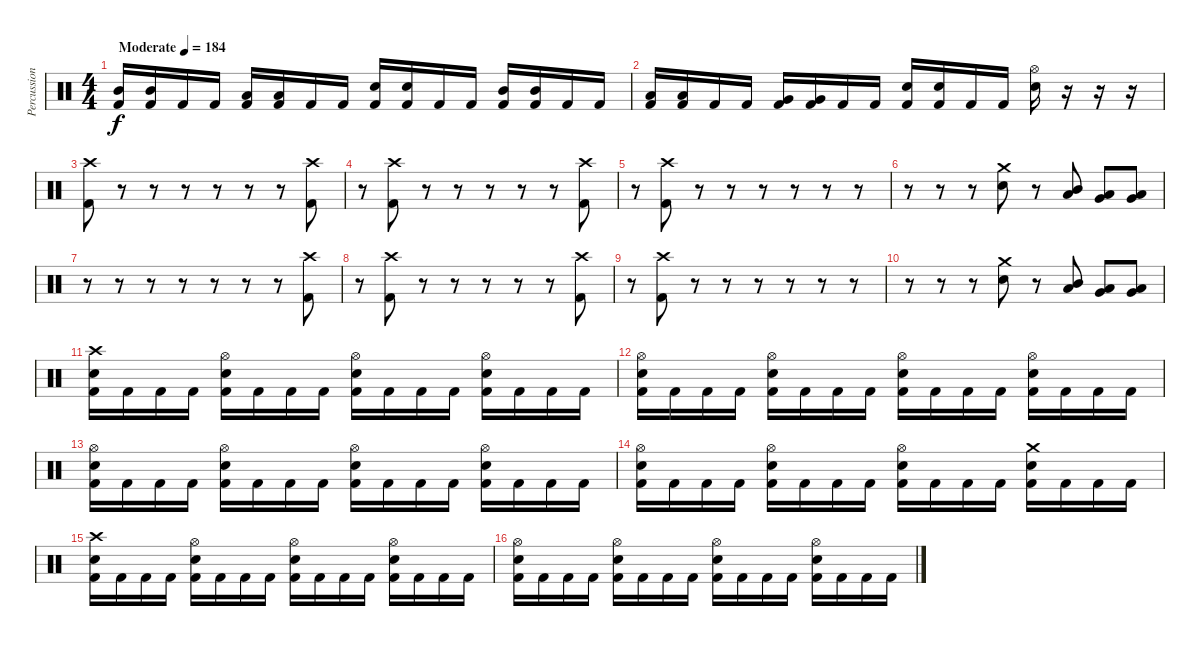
\track ("Percussion" "Percussion") {instrument percussion}
\staff {score}
\articulation defaults
\ts (4 4)
\tempo (184 "Moderate")
\clef neutral
\ks c
("Mid Tom (hit)" "Kick (hit) 2").16{dy f} ("Mid Tom (hit)" "Kick (hit) 2").16 "Kick (hit) 2".16 "Kick (hit) 2".16 ("Low Tom (hit)" "Kick (hit) 2").16 ("Low Tom (hit)" "Kick (hit) 2").16 "Kick (hit) 2".16 "Kick (hit) 2".16 ("Snare (hit) 2" "Kick (hit) 2").16 ("Snare (hit) 2" "Kick (hit) 2").16 "Kick (hit) 2".16 "Kick (hit) 2".16 ("Mid Tom (hit)" "Kick (hit) 2").16 ("Mid Tom (hit)" "Kick (hit) 2").16 "Kick (hit) 2".16 "Kick (hit) 2".16 |
("Low Tom (hit)" "Kick (hit) 2").16 ("Low Tom (hit)" "Kick (hit) 2").16 "Kick (hit) 2".16 "Kick (hit) 2".16 ("Very Low Tom (hit)" "Kick (hit) 2").16 ("Very Low Tom (hit)" "Kick (hit) 2").16 "Kick (hit) 2".16 "Kick (hit) 2".16 ("Snare (hit) 2" "Kick (hit) 2").16 ("Snare (hit) 2" "Kick (hit) 2").16 "Kick (hit) 2".16 "Kick (hit) 2".16 ("Hi-Hat (open)" "Snare (hit) 2").16 r.16 r.16 r.16 |
("Crash high (hit)" "Kick (hit) 2").8 r.8{volume 0} r.8 r.8 r.8 r.8 r.8 ("Crash high (hit)" "Kick (hit) 2").8{volume 16} |
r.8 ("Crash high (hit)" "Kick (hit) 2").8 r.8{volume 0} r.8 r.8 r.8 r.8 ("Crash high (hit)" "Kick (hit) 2").8{volume 16} |
r.8 ("Crash high (hit)" "Kick (hit) 2").8 r.8{volume 0} r.8 r.8 r.8 r.8 r.8 |
r.8 r.8 r.8 ("Crash medium (hit)" "Snare (hit) 2").8{volume 16} r.8 ("Mid Tom (hit)" "Low Tom (hit)").8 ("Low Floor Tom (hit)" "Very Low Tom (hit)").8 ("Low Floor Tom (hit)" "Very Low Tom (hit)").8 |
r.8 r.8 r.8 r.8 r.8 r.8 r.8 ("Crash high (hit)" "Kick (hit) 2").8{volume 16} |
r.8 ("Crash high (hit)" "Kick (hit) 2").8 r.8{volume 0} r.8 r.8 r.8 r.8 ("Crash high (hit)" "Kick (hit) 2").8{volume 16} |
r.8 ("Crash high (hit)" "Kick (hit) 2").8 r.8{volume 0} r.8 r.8 r.8 r.8 r.8 |
r.8 r.8 r.8 ("Crash medium (hit)" "Snare (hit) 2").8{volume 16} r.8 ("Mid Tom (hit)" "Low Tom (hit)").8 ("Low Floor Tom (hit)" "Very Low Tom (hit)").8 ("Low Floor Tom (hit)" "Very Low Tom (hit)").8 |
("Crash high (hit)" "Snare (hit) 2" "Kick (hit) 2").16 "Kick (hit) 2".16 "Kick (hit) 2".16 "Kick (hit) 2".16 ("Hi-Hat (open)" "Snare (hit) 2" "Kick (hit) 2").16 "Kick (hit) 2".16 "Kick (hit) 2".16 "Kick (hit) 2".16 ("Hi-Hat (open)" "Snare (hit) 2" "Kick (hit) 2").16 "Kick (hit) 2".16 "Kick (hit) 2".16 "Kick (hit) 2".16 ("Hi-Hat (open)" "Snare (hit) 2" "Kick (hit) 2").16 "Kick (hit) 2".16 "Kick (hit) 2".16 "Kick (hit) 2".16 |
("Hi-Hat (open)" "Snare (hit) 2" "Kick (hit) 2").16 "Kick (hit) 2".16 "Kick (hit) 2".16 "Kick (hit) 2".16 ("Hi-Hat (open)" "Snare (hit) 2" "Kick (hit) 2").16 "Kick (hit) 2".16 "Kick (hit) 2".16 "Kick (hit) 2".16 ("Hi-Hat (open)" "Snare (hit) 2" "Kick (hit) 2").16 "Kick (hit) 2".16 "Kick (hit) 2".16 "Kick (hit) 2".16 ("Hi-Hat (open)" "Snare (hit) 2" "Kick (hit) 2").16 "Kick (hit) 2".16 "Kick (hit) 2".16 "Kick (hit) 2".16 |
("Hi-Hat (open)" "Snare (hit) 2" "Kick (hit) 2").16 "Kick (hit) 2".16 "Kick (hit) 2".16 "Kick (hit) 2".16 ("Hi-Hat (open)" "Snare (hit) 2" "Kick (hit) 2").16 "Kick (hit) 2".16 "Kick (hit) 2".16 "Kick (hit) 2".16 ("Hi-Hat (open)" "Snare (hit) 2" "Kick (hit) 2").16 "Kick (hit) 2".16 "Kick (hit) 2".16 "Kick (hit) 2".16 ("Hi-Hat (open)" "Snare (hit) 2" "Kick (hit) 2").16 "Kick (hit) 2".16 "Kick (hit) 2".16 "Kick (hit) 2".16 |
("Hi-Hat (open)" "Snare (hit) 2" "Kick (hit) 2").16 "Kick (hit) 2".16 "Kick (hit) 2".16 "Kick (hit) 2".16 ("Hi-Hat (open)" "Snare (hit) 2" "Kick (hit) 2").16 "Kick (hit) 2".16 "Kick (hit) 2".16 "Kick (hit) 2".16 ("Hi-Hat (open)" "Snare (hit) 2" "Kick (hit) 2").16 "Kick (hit) 2".16 "Kick (hit) 2".16 "Kick (hit) 2".16 ("Crash medium (hit)" "Snare (hit) 2" "Kick (hit) 2").16 "Kick (hit) 2".16 "Kick (hit) 2".16 "Kick (hit) 2".16 |
("Crash high (hit)" "Snare (hit) 2" "Kick (hit) 2").16 "Kick (hit) 2".16 "Kick (hit) 2".16 "Kick (hit) 2".16 ("Hi-Hat (open)" "Snare (hit) 2" "Kick (hit) 2").16 "Kick (hit) 2".16 "Kick (hit) 2".16 "Kick (hit) 2".16 ("Hi-Hat (open)" "Snare (hit) 2" "Kick (hit) 2").16 "Kick (hit) 2".16 "Kick (hit) 2".16 "Kick (hit) 2".16 ("Hi-Hat (open)" "Snare (hit) 2" "Kick (hit) 2").16 "Kick (hit) 2".16 "Kick (hit) 2".16 "Kick (hit) 2".16 |
("Hi-Hat (open)" "Snare (hit) 2" "Kick (hit) 2").16 "Kick (hit) 2".16 "Kick (hit) 2".16 "Kick (hit) 2".16 ("Hi-Hat (open)" "Snare (hit) 2" "Kick (hit) 2").16 "Kick (hit) 2".16 "Kick (hit) 2".16 "Kick (hit) 2".16 ("Hi-Hat (open)" "Snare (hit) 2" "Kick (hit) 2").16 "Kick (hit) 2".16 "Kick (hit) 2".16 "Kick (hit) 2".16 ("Hi-Hat (open)" "Snare (hit) 2" "Kick (hit) 2").16 "Kick (hit) 2".16 "Kick (hit) 2".16 "Kick (hit) 2".16
